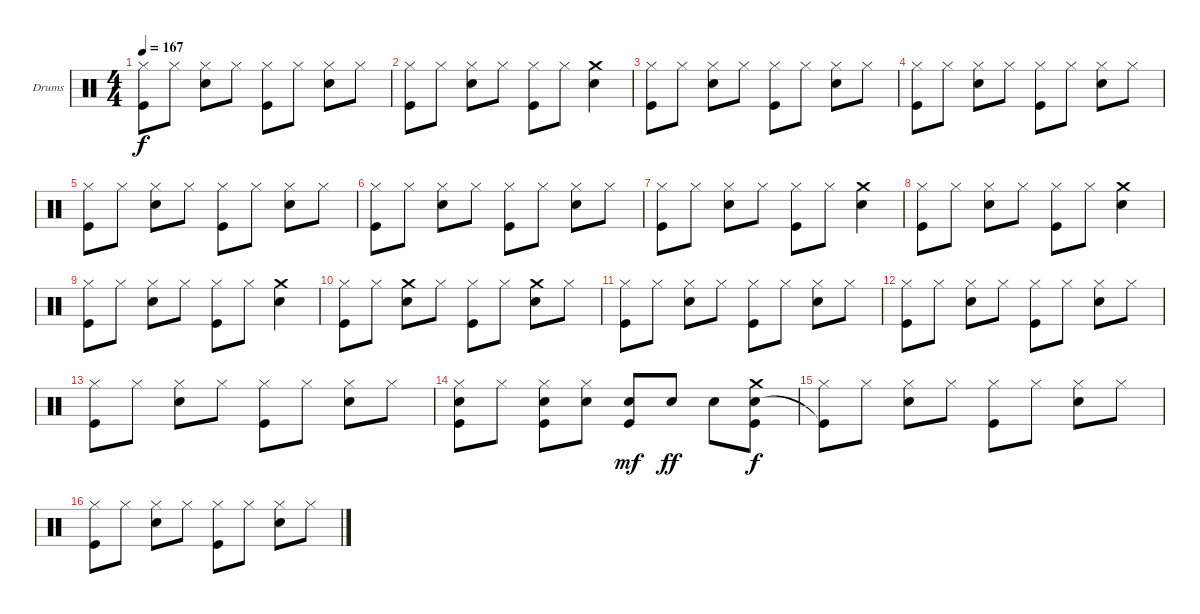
\bracketExtendMode groupsimilarinstruments
\firstSystemTrackNameOrientation horizontal
\otherSystemsTrackNameOrientation horizontal
\track ("Drumkit" "Drums") {instrument percussion}
\staff {score}
\articulation defaults
\ts (4 4)
\tempo 167
\clef neutral
\ks c
("Hi-Hat (closed)" "Kick (hit)").8{dy f} "Hi-Hat (closed)".8 ("Hi-Hat (closed)" "Snare (hit) 2").8 "Hi-Hat (closed)".8 ("Hi-Hat (closed)" "Kick (hit)").8 "Hi-Hat (closed)".8 ("Hi-Hat (closed)" "Snare (hit) 2").8 "Hi-Hat (closed)".8 |
("Hi-Hat (closed)" "Kick (hit)").8 "Hi-Hat (closed)".8 ("Hi-Hat (closed)" "Snare (hit) 2").8 "Hi-Hat (closed)".8 ("Hi-Hat (closed)" "Kick (hit)").8 "Hi-Hat (closed)".8 ("Crash medium (hit)" "Snare (hit) 2").4 |
("Hi-Hat (closed)" "Kick (hit)").8 "Hi-Hat (closed)".8 ("Hi-Hat (closed)" "Snare (hit) 2").8 "Hi-Hat (closed)".8 ("Hi-Hat (closed)" "Kick (hit)").8 "Hi-Hat (closed)".8 ("Hi-Hat (closed)" "Snare (hit) 2").8 "Hi-Hat (closed)".8 |
("Hi-Hat (closed)" "Kick (hit)").8 "Hi-Hat (closed)".8 ("Hi-Hat (closed)" "Snare (hit) 2").8 "Hi-Hat (closed)".8 ("Hi-Hat (closed)" "Kick (hit)").8 "Hi-Hat (closed)".8 ("Hi-Hat (closed)" "Snare (hit) 2").8 "Hi-Hat (closed)".8 |
("Hi-Hat (closed)" "Kick (hit)").8 "Hi-Hat (closed)".8 ("Hi-Hat (closed)" "Snare (hit) 2").8 "Hi-Hat (closed)".8 ("Hi-Hat (closed)" "Kick (hit)").8 "Hi-Hat (closed)".8 ("Hi-Hat (closed)" "Snare (hit) 2").8 "Hi-Hat (closed)".8 |
("Hi-Hat (closed)" "Kick (hit)").8 "Hi-Hat (closed)".8 ("Hi-Hat (closed)" "Snare (hit) 2").8 "Hi-Hat (closed)".8 ("Hi-Hat (closed)" "Kick (hit)").8 "Hi-Hat (closed)".8 ("Hi-Hat (closed)" "Snare (hit) 2").8 "Hi-Hat (closed)".8 |
("Hi-Hat (closed)" "Kick (hit)").8 "Hi-Hat (closed)".8 ("Hi-Hat (closed)" "Snare (hit) 2").8 "Hi-Hat (closed)".8 ("Hi-Hat (closed)" "Kick (hit)").8 "Hi-Hat (closed)".8 ("Crash medium (hit)" "Snare (hit) 2").4 |
("Hi-Hat (closed)" "Kick (hit)").8 "Hi-Hat (closed)".8 ("Hi-Hat (closed)" "Snare (hit) 2").8 "Hi-Hat (closed)".8 ("Hi-Hat (closed)" "Kick (hit)").8 "Hi-Hat (closed)".8 ("Crash medium (hit)" "Snare (hit) 2").4 |
("Hi-Hat (closed)" "Kick (hit)").8 "Hi-Hat (closed)".8 ("Hi-Hat (closed)" "Snare (hit) 2").8 "Hi-Hat (closed)".8 ("Hi-Hat (closed)" "Kick (hit)").8 "Hi-Hat (closed)".8 ("Crash medium (hit)" "Snare (hit) 2").4 |
("Hi-Hat (closed)" "Kick (hit)").8 "Hi-Hat (closed)".8 ("Crash medium (hit)" "Snare (hit) 2").8 "Hi-Hat (closed)".8 ("Hi-Hat (closed)" "Kick (hit)").8 "Hi-Hat (closed)".8 ("Crash medium (hit)" "Snare (hit) 2").8 "Hi-Hat (closed)".8 |
("Hi-Hat (closed)" "Kick (hit)").8 "Hi-Hat (closed)".8 ("Hi-Hat (closed)" "Snare (hit) 2").8 "Hi-Hat (closed)".8 ("Hi-Hat (closed)" "Kick (hit)").8 "Hi-Hat (closed)".8 ("Hi-Hat (closed)" "Snare (hit) 2").8 "Hi-Hat (closed)".8 |
("Hi-Hat (closed)" "Kick (hit)").8 "Hi-Hat (closed)".8 ("Hi-Hat (closed)" "Snare (hit) 2").8 "Hi-Hat (closed)".8 ("Hi-Hat (closed)" "Kick (hit)").8 "Hi-Hat (closed)".8 ("Hi-Hat (closed)" "Snare (hit) 2").8 "Hi-Hat (closed)".8 |
("Hi-Hat (closed)" "Kick (hit)").8 "Hi-Hat (closed)".8 ("Hi-Hat (closed)" "Snare (hit) 2").8 "Hi-Hat (closed)".8 ("Hi-Hat (closed)" "Kick (hit)").8 "Hi-Hat (closed)".8 ("Hi-Hat (closed)" "Snare (hit) 2").8 "Hi-Hat (closed)".8 |
("Hi-Hat (closed)" "Snare (hit) 2" "Kick (hit)").8 "Hi-Hat (closed)".8 ("Hi-Hat (closed)" "Snare (hit) 2" "Kick (hit)").8 ("Hi-Hat (closed)" "Snare (hit) 2").8 ("Snare (hit) 2" "Kick (hit)").8{dy mf} "Snare (hit) 2".8{dy ff} "Snare (hit) 2".8 ("Crash medium (hit)" "Snare (hit) 2" "Kick (hit)").8{dy f} |
("Hi-Hat (closed)" "Kick (hit)"{t}).8 "Hi-Hat (closed)".8 ("Hi-Hat (closed)" "Snare (hit) 2").8 "Hi-Hat (closed)".8 ("Hi-Hat (closed)" "Kick (hit)").8 "Hi-Hat (closed)".8 ("Hi-Hat (closed)" "Snare (hit) 2").8 "Hi-Hat (closed)".8 |
("Hi-Hat (closed)" "Kick (hit)").8 "Hi-Hat (closed)".8 ("Hi-Hat (closed)" "Snare (hit) 2").8 "Hi-Hat (closed)".8 ("Hi-Hat (closed)" "Kick (hit)").8 "Hi-Hat (closed)".8 ("Hi-Hat (closed)" "Snare (hit) 2").8 "Hi-Hat (closed)".8
